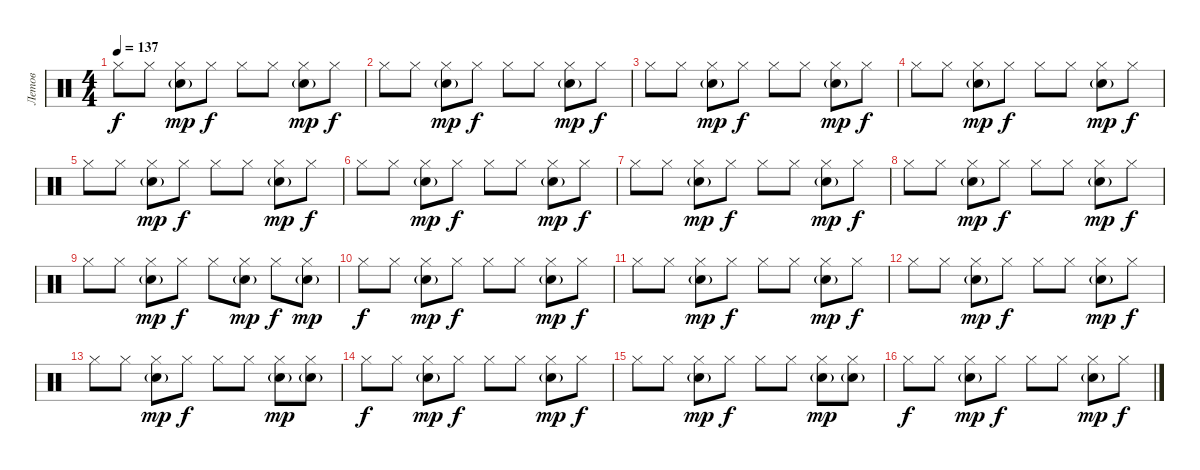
\track ("Летов" "Летов") {instrument percussion}
\staff {score}
\articulation defaults
\ts (4 4)
\tempo 137
\clef neutral
\ks c "Hi-Hat (closed)".8{dy f} "Hi-Hat (closed)".8
("Hi-Hat (closed)" "Electric Snare (hit)"{g}).8{dy mp} "Hi-Hat (closed)".8{dy f} "Hi-Hat (closed)".8 "Hi-Hat (closed)".8 ("Hi-Hat (closed)" "Electric Snare (hit)"{g}).8{dy mp} "Hi-Hat (closed)".8{dy f} |
"Hi-Hat (closed)".8 "Hi-Hat (closed)".8 ("Hi-Hat (closed)" "Electric Snare (hit)"{g}).8{dy mp} "Hi-Hat (closed)".8{dy f} "Hi-Hat (closed)".8 "Hi-Hat (closed)".8 ("Hi-Hat (closed)" "Electric Snare (hit)"{g}).8{dy mp} "Hi-Hat (closed)".8{dy f} |
"Hi-Hat (closed)".8 "Hi-Hat (closed)".8 ("Hi-Hat (closed)" "Electric Snare (hit)"{g}).8{dy mp} "Hi-Hat (closed)".8{dy f} "Hi-Hat (closed)".8 "Hi-Hat (closed)".8 ("Hi-Hat (closed)" "Electric Snare (hit)"{g}).8{dy mp} "Hi-Hat (closed)".8{dy f} |
"Hi-Hat (closed)".8 "Hi-Hat (closed)".8 ("Hi-Hat (closed)" "Electric Snare (hit)"{g}).8{dy mp} "Hi-Hat (closed)".8{dy f} "Hi-Hat (closed)".8 "Hi-Hat (closed)".8 ("Hi-Hat (closed)" "Electric Snare (hit)"{g}).8{dy mp} "Hi-Hat (closed)".8{dy f} |
"Hi-Hat (closed)".8 "Hi-Hat (closed)".8 ("Hi-Hat (closed)" "Electric Snare (hit)"{g}).8{dy mp} "Hi-Hat (closed)".8{dy f} "Hi-Hat (closed)".8 "Hi-Hat (closed)".8 ("Hi-Hat (closed)" "Electric Snare (hit)"{g}).8{dy mp} "Hi-Hat (closed)".8{dy f} |
"Hi-Hat (closed)".8 "Hi-Hat (closed)".8 ("Hi-Hat (closed)" "Electric Snare (hit)"{g}).8{dy mp} "Hi-Hat (closed)".8{dy f} "Hi-Hat (closed)".8 "Hi-Hat (closed)".8 ("Hi-Hat (closed)" "Electric Snare (hit)"{g}).8{dy mp} "Hi-Hat (closed)".8{dy f} |
"Hi-Hat (closed)".8 "Hi-Hat (closed)".8 ("Hi-Hat (closed)" "Electric Snare (hit)"{g}).8{dy mp} "Hi-Hat (closed)".8{dy f} "Hi-Hat (closed)".8 "Hi-Hat (closed)".8 ("Hi-Hat (closed)" "Electric Snare (hit)"{g}).8{dy mp} "Hi-Hat (closed)".8{dy f} |
"Hi-Hat (closed)".8 "Hi-Hat (closed)".8 ("Hi-Hat (closed)" "Electric Snare (hit)"{g}).8{dy mp} "Hi-Hat (closed)".8{dy f} "Hi-Hat (closed)".8 "Hi-Hat (closed)".8 ("Hi-Hat (closed)" "Electric Snare (hit)"{g}).8{dy mp} "Hi-Hat (closed)".8{dy f} |
"Hi-Hat (closed)".8 "Hi-Hat (closed)".8 ("Hi-Hat (closed)" "Electric Snare (hit)"{g}).8{dy mp} "Hi-Hat (closed)".8{dy f} "Hi-Hat (closed)".8 ("Hi-Hat (closed)" "Electric Snare (hit)"{g}).8{dy mp} "Hi-Hat (closed)".8{dy f} ("Hi-Hat (closed)" "Electric Snare (hit)"{g}).8{dy mp} |
"Hi-Hat (closed)".8{dy f} "Hi-Hat (closed)".8 ("Hi-Hat (closed)" "Electric Snare (hit)"{g}).8{dy mp} "Hi-Hat (closed)".8{dy f} "Hi-Hat (closed)".8 "Hi-Hat (closed)".8 ("Hi-Hat (closed)" "Electric Snare (hit)"{g}).8{dy mp} "Hi-Hat (closed)".8{dy f} |
"Hi-Hat (closed)".8 "Hi-Hat (closed)".8 ("Hi-Hat (closed)" "Electric Snare (hit)"{g}).8{dy mp} "Hi-Hat (closed)".8{dy f} "Hi-Hat (closed)".8 "Hi-Hat (closed)".8 ("Hi-Hat (closed)" "Electric Snare (hit)"{g}).8{dy mp} "Hi-Hat (closed)".8{dy f} |
"Hi-Hat (closed)".8 "Hi-Hat (closed)".8 ("Hi-Hat (closed)" "Electric Snare (hit)"{g}).8{dy mp} "Hi-Hat (closed)".8{dy f} "Hi-Hat (closed)".8 "Hi-Hat (closed)".8 ("Hi-Hat (closed)" "Electric Snare (hit)"{g}).8{dy mp} "Hi-Hat (closed)".8{dy f} |
"Hi-Hat (closed)".8 "Hi-Hat (closed)".8 ("Hi-Hat (closed)" "Electric Snare (hit)"{g}).8{dy mp} "Hi-Hat (closed)".8{dy f} "Hi-Hat (closed)".8 "Hi-Hat (closed)".8 ("Hi-Hat (closed)" "Electric Snare (hit)"{g}).8{dy mp} ("Hi-Hat (closed)" "Electric Snare (hit)"{g}).8 |
"Hi-Hat (closed)".8{dy f} "Hi-Hat (closed)".8 ("Hi-Hat (closed)" "Electric Snare (hit)"{g}).8{dy mp} "Hi-Hat (closed)".8{dy f} "Hi-Hat (closed)".8 "Hi-Hat (closed)".8 ("Hi-Hat (closed)" "Electric Snare (hit)"{g}).8{dy mp} "Hi-Hat (closed)".8{dy f} |
"Hi-Hat (closed)".8 "Hi-Hat (closed)".8 ("Hi-Hat (closed)" "Electric Snare (hit)"{g}).8{dy mp} "Hi-Hat (closed)".8{dy f} "Hi-Hat (closed)".8 "Hi-Hat (closed)".8 ("Hi-Hat (closed)" "Electric Snare (hit)"{g}).8{dy mp} ("Hi-Hat (closed)" "Electric Snare (hit)"{g}).8 |
"Hi-Hat (closed)".8{dy f} "Hi-Hat (closed)".8 ("Hi-Hat (closed)" "Electric Snare (hit)"{g}).8{dy mp} "Hi-Hat (closed)".8{dy f} "Hi-Hat (closed)".8 "Hi-Hat (closed)".8 ("Hi-Hat (closed)" "Electric Snare (hit)"{g}).8{dy mp} "Hi-Hat (closed)".8{dy f}
